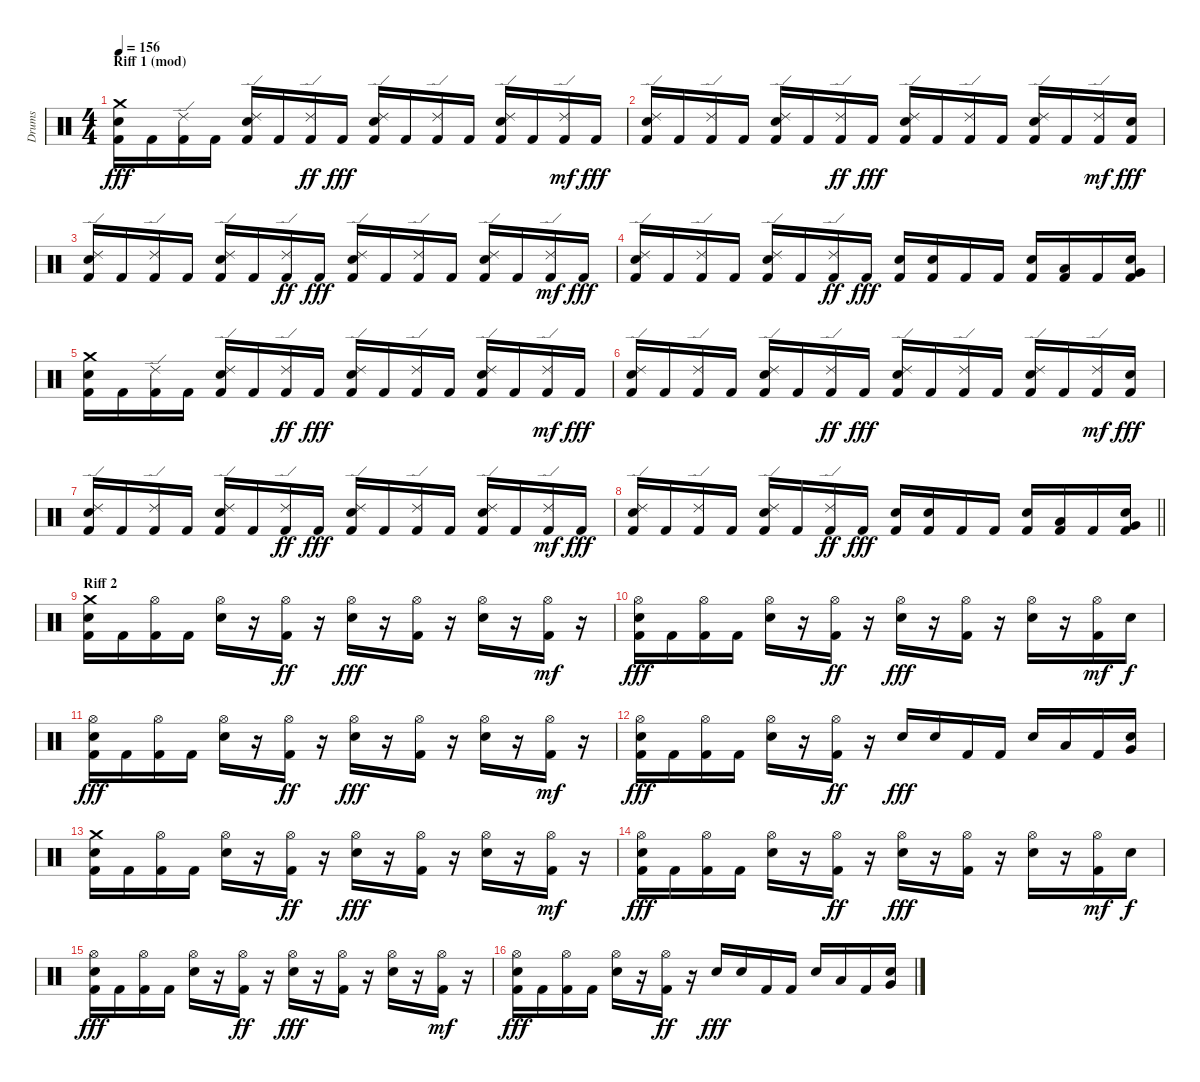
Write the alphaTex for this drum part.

\track ("Drums" "Drums") {instrument percussion}
\staff {score}
\articulation defaults
\ts (4 4)
\section ("" "Riff 1 (mod)")
\tempo 156
\clef neutral
\ks c
("Kick (hit) 2" "Snare (hit) 2" "Crash medium (hit)").16{dy fff} "Kick (hit) 2".16 ("Kick (hit) 2" "Ride (edge) 2").16 "Kick (hit) 2".16 ("Kick (hit) 2" "Snare (hit) 2" "Ride (edge) 2").16 "Kick (hit) 2".16 ("Kick (hit) 2" "Ride (edge) 2").16{dy ff} "Kick (hit) 2".16{dy fff} ("Kick (hit) 2" "Snare (hit) 2" "Ride (edge) 2").16 "Kick (hit) 2".16 ("Kick (hit) 2" "Ride (edge) 2").16 "Kick (hit) 2".16 ("Kick (hit) 2" "Snare (hit) 2" "Ride (edge) 2").16 "Kick (hit) 2".16 ("Kick (hit) 2" "Ride (edge) 2").16{dy mf} "Kick (hit) 2".16{dy fff} |
("Kick (hit) 2" "Snare (hit) 2" "Ride (edge) 2").16 "Kick (hit) 2".16 ("Kick (hit) 2" "Ride (edge) 2").16 "Kick (hit) 2".16 ("Kick (hit) 2" "Snare (hit) 2" "Ride (edge) 2").16 "Kick (hit) 2".16 ("Kick (hit) 2" "Ride (edge) 2").16{dy ff} "Kick (hit) 2".16{dy fff} ("Kick (hit) 2" "Snare (hit) 2" "Ride (edge) 2").16 "Kick (hit) 2".16 ("Kick (hit) 2" "Ride (edge) 2").16 "Kick (hit) 2".16 ("Kick (hit) 2" "Snare (hit) 2" "Ride (edge) 2").16 "Kick (hit) 2".16 ("Kick (hit) 2" "Ride (edge) 2").16{dy mf} ("Kick (hit) 2" "Snare (hit) 2").16{dy fff} |
("Kick (hit) 2" "Snare (hit) 2" "Ride (edge) 2").16 "Kick (hit) 2".16 ("Kick (hit) 2" "Ride (edge) 2").16 "Kick (hit) 2".16 ("Kick (hit) 2" "Snare (hit) 2" "Ride (edge) 2").16 "Kick (hit) 2".16 ("Kick (hit) 2" "Ride (edge) 2").16{dy ff} "Kick (hit) 2".16{dy fff} ("Kick (hit) 2" "Snare (hit) 2" "Ride (edge) 2").16 "Kick (hit) 2".16 ("Kick (hit) 2" "Ride (edge) 2").16 "Kick (hit) 2".16 ("Kick (hit) 2" "Snare (hit) 2" "Ride (edge) 2").16 "Kick (hit) 2".16 ("Kick (hit) 2" "Ride (edge) 2").16{dy mf} "Kick (hit) 2".16{dy fff} |
("Kick (hit) 2" "Snare (hit) 2" "Ride (edge) 2").16 "Kick (hit) 2".16 ("Kick (hit) 2" "Ride (edge) 2").16 "Kick (hit) 2".16 ("Kick (hit) 2" "Snare (hit) 2" "Ride (edge) 2").16 "Kick (hit) 2".16 ("Kick (hit) 2" "Ride (edge) 2").16{dy ff} "Kick (hit) 2".16{dy fff} ("Kick (hit) 2" "Snare (hit) 2").16 ("Kick (hit) 2" "Snare (hit) 2").16 "Kick (hit) 2".16 "Kick (hit) 2".16 ("Kick (hit) 2" "Snare (hit) 2").16 ("Kick (hit) 2" "Low Tom (hit)").16 "Kick (hit) 2".16 ("Kick (hit) 2" "Snare (hit) 2" "Very Low Tom (hit)").16 |
("Kick (hit) 2" "Snare (hit) 2" "Crash medium (hit)").16 "Kick (hit) 2".16 ("Kick (hit) 2" "Ride (edge) 2").16 "Kick (hit) 2".16 ("Kick (hit) 2" "Snare (hit) 2" "Ride (edge) 2").16 "Kick (hit) 2".16 ("Kick (hit) 2" "Ride (edge) 2").16{dy ff} "Kick (hit) 2".16{dy fff} ("Kick (hit) 2" "Snare (hit) 2" "Ride (edge) 2").16 "Kick (hit) 2".16 ("Kick (hit) 2" "Ride (edge) 2").16 "Kick (hit) 2".16 ("Kick (hit) 2" "Snare (hit) 2" "Ride (edge) 2").16 "Kick (hit) 2".16 ("Kick (hit) 2" "Ride (edge) 2").16{dy mf} "Kick (hit) 2".16{dy fff} |
("Kick (hit) 2" "Snare (hit) 2" "Ride (edge) 2").16 "Kick (hit) 2".16 ("Kick (hit) 2" "Ride (edge) 2").16 "Kick (hit) 2".16 ("Kick (hit) 2" "Snare (hit) 2" "Ride (edge) 2").16 "Kick (hit) 2".16 ("Kick (hit) 2" "Ride (edge) 2").16{dy ff} "Kick (hit) 2".16{dy fff} ("Kick (hit) 2" "Snare (hit) 2" "Ride (edge) 2").16 "Kick (hit) 2".16 ("Kick (hit) 2" "Ride (edge) 2").16 "Kick (hit) 2".16 ("Kick (hit) 2" "Snare (hit) 2" "Ride (edge) 2").16 "Kick (hit) 2".16 ("Kick (hit) 2" "Ride (edge) 2").16{dy mf} ("Kick (hit) 2" "Snare (hit) 2").16{dy fff} |
("Kick (hit) 2" "Snare (hit) 2" "Ride (edge) 2").16 "Kick (hit) 2".16 ("Kick (hit) 2" "Ride (edge) 2").16 "Kick (hit) 2".16 ("Kick (hit) 2" "Snare (hit) 2" "Ride (edge) 2").16 "Kick (hit) 2".16 ("Kick (hit) 2" "Ride (edge) 2").16{dy ff} "Kick (hit) 2".16{dy fff} ("Kick (hit) 2" "Snare (hit) 2" "Ride (edge) 2").16 "Kick (hit) 2".16 ("Kick (hit) 2" "Ride (edge) 2").16 "Kick (hit) 2".16 ("Kick (hit) 2" "Snare (hit) 2" "Ride (edge) 2").16 "Kick (hit) 2".16 ("Kick (hit) 2" "Ride (edge) 2").16{dy mf} "Kick (hit) 2".16{dy fff} |
\barLineRight lightlight
("Kick (hit) 2" "Snare (hit) 2" "Ride (edge) 2").16 "Kick (hit) 2".16 ("Kick (hit) 2" "Ride (edge) 2").16 "Kick (hit) 2".16 ("Kick (hit) 2" "Snare (hit) 2" "Ride (edge) 2").16 "Kick (hit) 2".16 ("Kick (hit) 2" "Ride (edge) 2").16{dy ff} "Kick (hit) 2".16{dy fff} ("Kick (hit) 2" "Snare (hit) 2").16 ("Kick (hit) 2" "Snare (hit) 2").16 "Kick (hit) 2".16 "Kick (hit) 2".16 ("Kick (hit) 2" "Snare (hit) 2").16 ("Kick (hit) 2" "Low Tom (hit)").16 "Kick (hit) 2".16 ("Kick (hit) 2" "Snare (hit) 2" "Very Low Tom (hit)").16 |
\section ("" "Riff 2")
("Kick (hit) 2" "Snare (hit) 2" "Crash medium (hit)").16 "Kick (hit) 2".16 ("Kick (hit) 2" "Hi-Hat (open)").16 "Kick (hit) 2".16 ("Snare (hit) 2" "Hi-Hat (open)").16 r.16 ("Kick (hit) 2" "Hi-Hat (open)").16{dy ff} r.16 ("Snare (hit) 2" "Hi-Hat (open)").16{dy fff} r.16 ("Kick (hit) 2" "Hi-Hat (open)").16 r.16 ("Snare (hit) 2" "Hi-Hat (open)").16 r.16 ("Kick (hit) 2" "Hi-Hat (open)").16{dy mf} r.16 |
("Kick (hit) 2" "Snare (hit) 2" "Hi-Hat (open)").16{dy fff} "Kick (hit) 2".16 ("Kick (hit) 2" "Hi-Hat (open)").16 "Kick (hit) 2".16 ("Snare (hit) 2" "Hi-Hat (open)").16 r.16 ("Kick (hit) 2" "Hi-Hat (open)").16{dy ff} r.16 ("Snare (hit) 2" "Hi-Hat (open)").16{dy fff} r.16 ("Kick (hit) 2" "Hi-Hat (open)").16 r.16 ("Snare (hit) 2" "Hi-Hat (open)").16 r.16 ("Kick (hit) 2" "Hi-Hat (open)").16{dy mf} "Snare (hit) 2".16{dy f} |
("Kick (hit) 2" "Snare (hit) 2" "Hi-Hat (open)").16{dy fff} "Kick (hit) 2".16 ("Kick (hit) 2" "Hi-Hat (open)").16 "Kick (hit) 2".16 ("Snare (hit) 2" "Hi-Hat (open)").16 r.16 ("Kick (hit) 2" "Hi-Hat (open)").16{dy ff} r.16 ("Snare (hit) 2" "Hi-Hat (open)").16{dy fff} r.16 ("Kick (hit) 2" "Hi-Hat (open)").16 r.16 ("Snare (hit) 2" "Hi-Hat (open)").16 r.16 ("Kick (hit) 2" "Hi-Hat (open)").16{dy mf} r.16 |
("Kick (hit) 2" "Snare (hit) 2" "Hi-Hat (open)").16{dy fff} "Kick (hit) 2".16 ("Kick (hit) 2" "Hi-Hat (open)").16 "Kick (hit) 2".16 ("Snare (hit) 2" "Hi-Hat (open)").16 r.16 ("Kick (hit) 2" "Hi-Hat (open)").16{dy ff} r.16 "Snare (hit) 2".16{dy fff} "Snare (hit) 2".16 "Kick (hit) 2".16 "Kick (hit) 2".16 "Snare (hit) 2".16 "Low Tom (hit)".16 "Kick (hit) 2".16 ("Snare (hit) 2" "Very Low Tom (hit)").16 |
("Kick (hit) 2" "Snare (hit) 2" "Crash medium (hit)").16 "Kick (hit) 2".16 ("Kick (hit) 2" "Hi-Hat (open)").16 "Kick (hit) 2".16 ("Snare (hit) 2" "Hi-Hat (open)").16 r.16 ("Kick (hit) 2" "Hi-Hat (open)").16{dy ff} r.16 ("Snare (hit) 2" "Hi-Hat (open)").16{dy fff} r.16 ("Kick (hit) 2" "Hi-Hat (open)").16 r.16 ("Snare (hit) 2" "Hi-Hat (open)").16 r.16 ("Kick (hit) 2" "Hi-Hat (open)").16{dy mf} r.16 |
("Kick (hit) 2" "Snare (hit) 2" "Hi-Hat (open)").16{dy fff} "Kick (hit) 2".16 ("Kick (hit) 2" "Hi-Hat (open)").16 "Kick (hit) 2".16 ("Snare (hit) 2" "Hi-Hat (open)").16 r.16 ("Kick (hit) 2" "Hi-Hat (open)").16{dy ff} r.16 ("Snare (hit) 2" "Hi-Hat (open)").16{dy fff} r.16 ("Kick (hit) 2" "Hi-Hat (open)").16 r.16 ("Snare (hit) 2" "Hi-Hat (open)").16 r.16 ("Kick (hit) 2" "Hi-Hat (open)").16{dy mf} "Snare (hit) 2".16{dy f} |
("Kick (hit) 2" "Snare (hit) 2" "Hi-Hat (open)").16{dy fff} "Kick (hit) 2".16 ("Kick (hit) 2" "Hi-Hat (open)").16 "Kick (hit) 2".16 ("Snare (hit) 2" "Hi-Hat (open)").16 r.16 ("Kick (hit) 2" "Hi-Hat (open)").16{dy ff} r.16 ("Snare (hit) 2" "Hi-Hat (open)").16{dy fff} r.16 ("Kick (hit) 2" "Hi-Hat (open)").16 r.16 ("Snare (hit) 2" "Hi-Hat (open)").16 r.16 ("Kick (hit) 2" "Hi-Hat (open)").16{dy mf} r.16 |
("Kick (hit) 2" "Snare (hit) 2" "Hi-Hat (open)").16{dy fff} "Kick (hit) 2".16 ("Kick (hit) 2" "Hi-Hat (open)").16 "Kick (hit) 2".16 ("Snare (hit) 2" "Hi-Hat (open)").16 r.16 ("Kick (hit) 2" "Hi-Hat (open)").16{dy ff} r.16 "Snare (hit) 2".16{dy fff} "Snare (hit) 2".16 "Kick (hit) 2".16 "Kick (hit) 2".16 "Snare (hit) 2".16 "Low Tom (hit)".16 "Kick (hit) 2".16 ("Snare (hit) 2" "Very Low Tom (hit)").16
